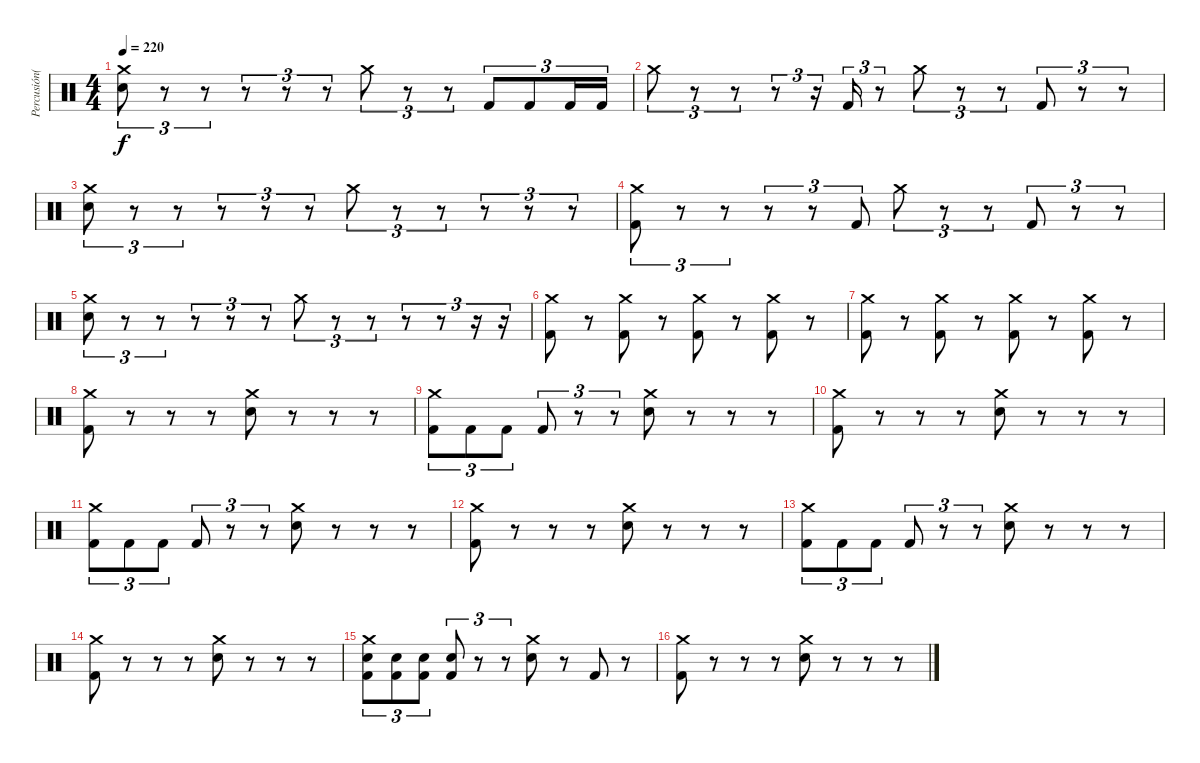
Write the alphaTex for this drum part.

\track ("Percusión(Brett Powell)" "Percusión(") {instrument percussion}
\staff {score}
\articulation defaults
\ts (4 4)
\tempo 220
\clef neutral
\ks c
("Crash medium (hit)" "Electric Snare (hit)").8{tu (3 2) dy f} r.8{tu (3 2)} r.8{tu (3 2)} r.8{tu (3 2)} r.8{tu (3 2)} r.8{tu (3 2)} "Crash medium (hit)".8{tu (3 2)} r.8{tu (3 2)} r.8{tu (3 2)} "Kick (hit) 2".8{tu (3 2)} "Kick (hit) 2".8{tu (3 2)} "Kick (hit) 2".16{tu (3 2)} "Kick (hit) 2".16{tu (3 2)} |
"Crash medium (hit)".8{tu (3 2)} r.8{tu (3 2)} r.8{tu (3 2)} r.8{tu (3 2)} r.16{tu (3 2)} "Kick (hit) 2".16{tu (3 2)} r.8{tu (3 2)} "Crash medium (hit)".8{tu (3 2)} r.8{tu (3 2)} r.8{tu (3 2)} "Kick (hit) 2".8{tu (3 2)} r.8{tu (3 2)} r.8{tu (3 2)} |
("Crash medium (hit)" "Electric Snare (hit)").8{tu (3 2)} r.8{tu (3 2)} r.8{tu (3 2)} r.8{tu (3 2)} r.8{tu (3 2)} r.8{tu (3 2)} "Crash medium (hit)".8{tu (3 2)} r.8{tu (3 2)} r.8{tu (3 2)} r.8{tu (3 2)} r.8{tu (3 2)} r.8{tu (3 2)} |
("Crash medium (hit)" "Kick (hit) 2").8{tu (3 2)} r.8{tu (3 2)} r.8{tu (3 2)} r.8{tu (3 2)} r.8{tu (3 2)} "Kick (hit) 2".8{tu (3 2)} "Crash medium (hit)".8{tu (3 2)} r.8{tu (3 2)} r.8{tu (3 2)} "Kick (hit) 2".8{tu (3 2)} r.8{tu (3 2)} r.8{tu (3 2)} |
("Crash medium (hit)" "Electric Snare (hit)").8{tu (3 2)} r.8{tu (3 2)} r.8{tu (3 2)} r.8{tu (3 2)} r.8{tu (3 2)} r.8{tu (3 2)} "Crash medium (hit)".8{tu (3 2)} r.8{tu (3 2)} r.8{tu (3 2)} r.8{tu (3 2)} r.8{tu (3 2)} r.16{tu (3 2)} r.16{tu (3 2)} |
("Crash medium (hit)" "Kick (hit) 2").8 r.8 ("Crash medium (hit)" "Kick (hit) 2").8 r.8 ("Crash medium (hit)" "Kick (hit) 2").8 r.8 ("Crash medium (hit)" "Kick (hit) 2").8 r.8 |
("Crash medium (hit)" "Kick (hit) 2").8 r.8 ("Crash medium (hit)" "Kick (hit) 2").8 r.8 ("Crash medium (hit)" "Kick (hit) 2").8 r.8 ("Crash medium (hit)" "Kick (hit) 2").8 r.8 |
("Crash medium (hit)" "Kick (hit) 2").8 r.8 r.8 r.8 ("Crash medium (hit)" "Electric Snare (hit)").8 r.8 r.8 r.8 |
("Crash medium (hit)" "Kick (hit) 2").8{tu (3 2)} "Kick (hit) 2".8{tu (3 2)} "Kick (hit) 2".8{tu (3 2)} "Kick (hit) 2".8{tu (3 2)} r.8{tu (3 2)} r.8{tu (3 2)} ("Crash medium (hit)" "Electric Snare (hit)").8 r.8 r.8 r.8 |
("Crash medium (hit)" "Kick (hit) 2").8 r.8 r.8 r.8 ("Crash medium (hit)" "Electric Snare (hit)").8 r.8 r.8 r.8 |
("Crash medium (hit)" "Kick (hit) 2").8{tu (3 2)} "Kick (hit) 2".8{tu (3 2)} "Kick (hit) 2".8{tu (3 2)} "Kick (hit) 2".8{tu (3 2)} r.8{tu (3 2)} r.8{tu (3 2)} ("Crash medium (hit)" "Electric Snare (hit)").8 r.8 r.8 r.8 |
("Crash medium (hit)" "Kick (hit) 2").8 r.8 r.8 r.8 ("Crash medium (hit)" "Electric Snare (hit)").8 r.8 r.8 r.8 |
("Crash medium (hit)" "Kick (hit) 2").8{tu (3 2)} "Kick (hit) 2".8{tu (3 2)} "Kick (hit) 2".8{tu (3 2)} "Kick (hit) 2".8{tu (3 2)} r.8{tu (3 2)} r.8{tu (3 2)} ("Crash medium (hit)" "Electric Snare (hit)").8 r.8 r.8 r.8 |
("Crash medium (hit)" "Kick (hit) 2").8 r.8 r.8 r.8 ("Crash medium (hit)" "Electric Snare (hit)").8 r.8 r.8 r.8 |
("Crash medium (hit)" "Kick (hit) 2" "Electric Snare (hit)").8{tu (3 2)} ("Kick (hit) 2" "Electric Snare (hit)").8{tu (3 2)} ("Kick (hit) 2" "Electric Snare (hit)").8{tu (3 2)} ("Kick (hit) 2" "Electric Snare (hit)").8{tu (3 2)} r.8{tu (3 2)} r.8{tu (3 2)} ("Crash medium (hit)" "Electric Snare (hit)").8 r.8 "Kick (hit) 2".8 r.8 |
("Crash medium (hit)" "Kick (hit) 2").8 r.8 r.8 r.8 ("Crash medium (hit)" "Electric Snare (hit)").8 r.8 r.8 r.8
